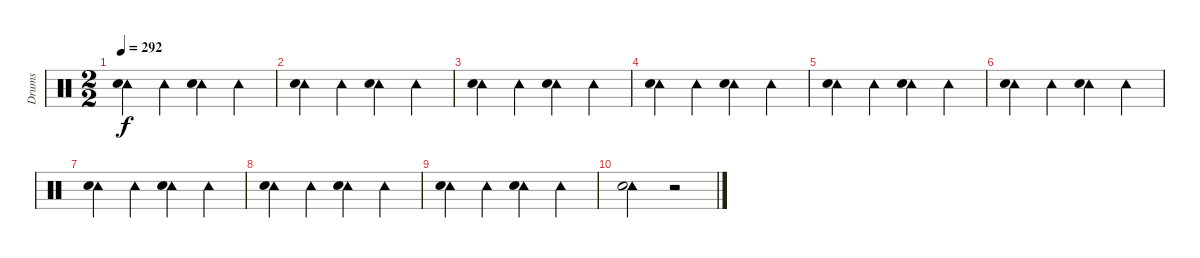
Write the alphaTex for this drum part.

\track ("Drums" "Drums") {instrument percussion}
\staff {score}
\articulation defaults
\ts (2 2)
\tempo 292
\clef neutral
\ks c
("Tambourine (hit)" "Electric Snare (hit)").4{dy f} "Tambourine (hit)".4 ("Tambourine (hit)" "Electric Snare (hit)").4 "Tambourine (hit)".4 |
("Tambourine (hit)" "Electric Snare (hit)").4 "Tambourine (hit)".4 ("Tambourine (hit)" "Electric Snare (hit)").4 "Tambourine (hit)".4 |
("Tambourine (hit)" "Electric Snare (hit)").4 "Tambourine (hit)".4 ("Tambourine (hit)" "Electric Snare (hit)").4 "Tambourine (hit)".4 |
("Tambourine (hit)" "Electric Snare (hit)").4 "Tambourine (hit)".4 ("Tambourine (hit)" "Electric Snare (hit)").4 "Tambourine (hit)".4 |
("Tambourine (hit)" "Electric Snare (hit)").4 "Tambourine (hit)".4 ("Tambourine (hit)" "Electric Snare (hit)").4 "Tambourine (hit)".4 |
("Tambourine (hit)" "Electric Snare (hit)").4 "Tambourine (hit)".4 ("Tambourine (hit)" "Electric Snare (hit)").4 "Tambourine (hit)".4 |
("Tambourine (hit)" "Electric Snare (hit)").4 "Tambourine (hit)".4 ("Tambourine (hit)" "Electric Snare (hit)").4 "Tambourine (hit)".4 |
("Tambourine (hit)" "Electric Snare (hit)").4 "Tambourine (hit)".4 ("Tambourine (hit)" "Electric Snare (hit)").4 "Tambourine (hit)".4 |
("Tambourine (hit)" "Electric Snare (hit)").4 "Tambourine (hit)".4 ("Tambourine (hit)" "Electric Snare (hit)").4 "Tambourine (hit)".4 |
("Tambourine (hit)" "Electric Snare (hit)").2 r.2
